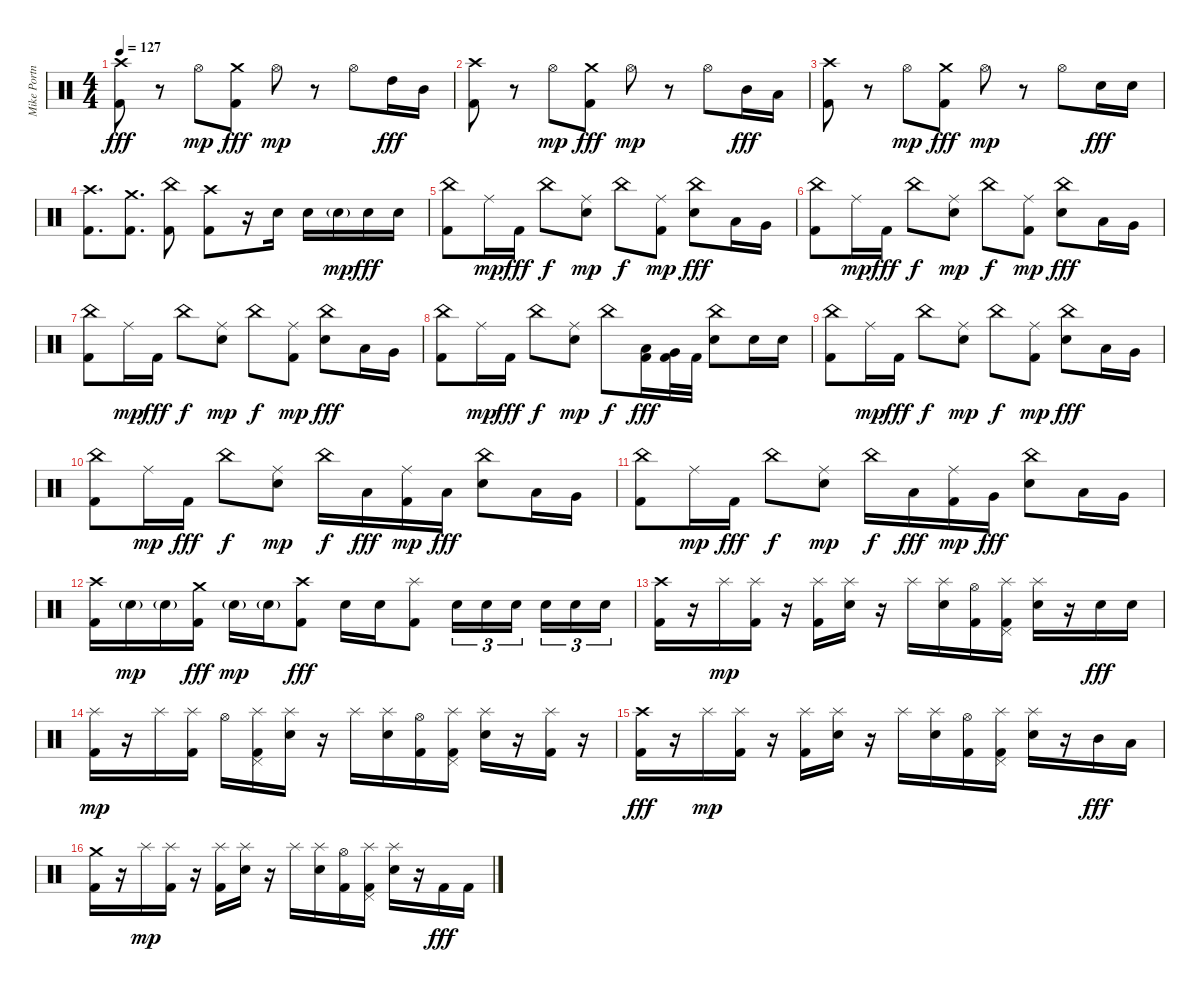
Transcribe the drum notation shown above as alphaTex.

\track ("Mike Portnoy" "Mike Portn") {instrument percussion}
\staff {score}
\articulation defaults
\ts (4 4)
\tempo 127
\clef neutral
\ks c
("Kick (hit) 2" "Crash high (hit)").8{dy fff} r.8 "Hi-Hat (open)".8{dy mp} ("Kick (hit) 2" "Crash medium (hit)").8{dy fff} "Hi-Hat (open)".8{dy mp} r.8 "Hi-Hat (open)".8 "High Tom (hit)".16{dy fff} "Mid Tom (hit)".16 |
("Kick (hit) 2" "Crash high (hit)").8 r.8 "Hi-Hat (open)".8{dy mp} ("Kick (hit) 2" "Crash medium (hit)").8{dy fff} "Hi-Hat (open)".8{dy mp} r.8 "Hi-Hat (open)".8 "Mid Tom (hit)".16{dy fff} "Low Tom (hit)".16 |
("Kick (hit) 2" "Crash high (hit)").8 r.8 "Hi-Hat (open)".8{dy mp} ("Kick (hit) 2" "Crash medium (hit)").8{dy fff} "Hi-Hat (open)".8{dy mp} r.8 "Hi-Hat (open)".8 "Electric Snare (hit)".16{dy fff} "Electric Snare (hit)".16 |
("Kick (hit) 2" "Crash high (hit)").8{d} ("Kick (hit) 2" "Crash medium (hit)").8{d} ("Kick (hit) 2" "China (hit)").8 ("Kick (hit) 2" "Crash high (hit)").8 r.16 "Electric Snare (hit)".16 "Electric Snare (hit)".16 "Electric Snare (hit)"{g}.16{dy mp} "Electric Snare (hit)".16{dy fff} "Electric Snare (hit)".16 |
("Kick (hit) 2" "China (hit)").8 "Ride (middle)".16{dy mp} "Kick (hit) 2".16{dy fff} "China (hit)".8{dy f} ("Electric Snare (hit)" "Ride (middle)").8{dy mp} "China (hit)".8{dy f} ("Kick (hit) 2" "Ride (middle)").8{dy mp} ("Electric Snare (hit)" "China (hit)").8{dy fff} "Low Tom (hit)".16 "Very Low Tom (hit)".16 |
("Kick (hit) 2" "China (hit)").8 "Ride (middle)".16{dy mp} "Kick (hit) 2".16{dy fff} "China (hit)".8{dy f} ("Electric Snare (hit)" "Ride (middle)").8{dy mp} "China (hit)".8{dy f} ("Kick (hit) 2" "Ride (middle)").8{dy mp} ("Electric Snare (hit)" "China (hit)").8{dy fff} "Low Tom (hit)".16 "Very Low Tom (hit)".16 |
("Kick (hit) 2" "China (hit)").8 "Ride (middle)".16{dy mp} "Kick (hit) 2".16{dy fff} "China (hit)".8{dy f} ("Electric Snare (hit)" "Ride (middle)").8{dy mp} "China (hit)".8{dy f} ("Kick (hit) 2" "Ride (middle)").8{dy mp} ("Electric Snare (hit)" "China (hit)").8{dy fff} "Low Tom (hit)".16 "Very Low Tom (hit)".16 |
("Kick (hit) 2" "China (hit)").8 "Ride (middle)".16{dy mp} "Kick (hit) 2".16{dy fff} "China (hit)".8{dy f} ("Electric Snare (hit)" "Ride (middle)").8{dy mp} "China (hit)".8{dy f} ("Kick (hit) 2" "Low Tom (hit)").16{dy fff} ("Kick (hit) 2" "Very Low Tom (hit)").32 "Kick (hit) 2".32 ("Electric Snare (hit)" "China (hit)").8 "Electric Snare (hit)".16 "Electric Snare (hit)".16 |
("Kick (hit) 2" "China (hit)").8 "Ride (middle)".16{dy mp} "Kick (hit) 2".16{dy fff} "China (hit)".8{dy f} ("Electric Snare (hit)" "Ride (middle)").8{dy mp} "China (hit)".8{dy f} ("Kick (hit) 2" "Ride (middle)").8{dy mp} ("Electric Snare (hit)" "China (hit)").8{dy fff} "Low Tom (hit)".16 "Very Low Tom (hit)".16 |
("Kick (hit) 2" "China (hit)").8 "Ride (middle)".16{dy mp} "Kick (hit) 2".16{dy fff} "China (hit)".8{dy f} ("Electric Snare (hit)" "Ride (middle)").8{dy mp} "China (hit)".16{dy f} "Low Tom (hit)".16{dy fff} ("Kick (hit) 2" "Ride (middle)").16{dy mp} "Low Tom (hit)".16{dy fff} ("Electric Snare (hit)" "China (hit)").8 "Low Tom (hit)".16 "Very Low Tom (hit)".16 |
("Kick (hit) 2" "China (hit)").8 "Ride (middle)".16{dy mp} "Kick (hit) 2".16{dy fff} "China (hit)".8{dy f} ("Electric Snare (hit)" "Ride (middle)").8{dy mp} "China (hit)".16{dy f} "Low Tom (hit)".16{dy fff} ("Kick (hit) 2" "Ride (middle)").16{dy mp} "Very Low Tom (hit)".16{dy fff} ("Electric Snare (hit)" "China (hit)").8 "Low Tom (hit)".16 "Very Low Tom (hit)".16 |
("Kick (hit) 2" "Crash high (hit)").16 "Electric Snare (hit)"{g}.16{dy mp} "Electric Snare (hit)"{g}.16 ("Kick (hit) 2" "Crash medium (hit)").16{dy fff} "Electric Snare (hit)"{g}.16{dy mp} "Electric Snare (hit)"{g}.16 ("Kick (hit) 2" "Crash high (hit)").8{dy fff} "Electric Snare (hit)".16 "Electric Snare (hit)".16 ("Kick (hit) 2" "Splash (hit)").8 "Electric Snare (hit)".16{tu (3 2)} "Electric Snare (hit)".16{tu (3 2)} "Electric Snare (hit)".16{tu (3 2) beam splitsecondary} "Electric Snare (hit)".16{tu (3 2)} "Electric Snare (hit)".16{tu (3 2)} "Electric Snare (hit)".16{tu (3 2)} |
("Kick (hit) 2" "Crash high (hit)").16 r.16 "Splash (hit)".16{dy mp} ("Kick (hit) 2" "Splash (hit)").16 r.16 ("Kick (hit) 2" "Splash (hit)").16 ("Electric Snare (hit)" "Splash (hit)").16 r.16 "Splash (hit)".16 ("Electric Snare (hit)" "Splash (hit)").16 ("Kick (hit) 2" "Hi-Hat (open)").16 ("Kick (hit) 2" "Splash (hit)" "Pedal Hi-Hat (hit)").16 ("Electric Snare (hit)" "Splash (hit)").16 r.16 "Electric Snare (hit)".16{dy fff} "Electric Snare (hit)".16 |
("Kick (hit) 2" "Splash (hit)").16{dy mp} r.16 "Splash (hit)".16 ("Kick (hit) 2" "Splash (hit)").16 "Hi-Hat (open)".16 ("Kick (hit) 2" "Splash (hit)" "Pedal Hi-Hat (hit)").16 ("Electric Snare (hit)" "Splash (hit)").16 r.16 "Splash (hit)".16 ("Electric Snare (hit)" "Splash (hit)").16 ("Kick (hit) 2" "Hi-Hat (open)").16 ("Kick (hit) 2" "Splash (hit)" "Pedal Hi-Hat (hit)").16 ("Electric Snare (hit)" "Splash (hit)").16 r.16 ("Kick (hit) 2" "Splash (hit)").16 r.16 |
("Kick (hit) 2" "Crash high (hit)").16{dy fff} r.16 "Splash (hit)".16{dy mp} ("Kick (hit) 2" "Splash (hit)").16 r.16 ("Kick (hit) 2" "Splash (hit)").16 ("Electric Snare (hit)" "Splash (hit)").16 r.16 "Splash (hit)".16 ("Electric Snare (hit)" "Splash (hit)").16 ("Kick (hit) 2" "Hi-Hat (open)").16 ("Kick (hit) 2" "Splash (hit)" "Pedal Hi-Hat (hit)").16 ("Electric Snare (hit)" "Splash (hit)").16 r.16 "Mid Tom (hit)".16{dy fff} "Low Tom (hit)".16 |
("Kick (hit) 2" "Crash medium (hit)").16 r.16 "Splash (hit)".16{dy mp} ("Kick (hit) 2" "Splash (hit)").16 r.16 ("Kick (hit) 2" "Splash (hit)").16 ("Electric Snare (hit)" "Splash (hit)").16 r.16 "Splash (hit)".16 ("Electric Snare (hit)" "Splash (hit)").16 ("Kick (hit) 2" "Hi-Hat (open)").16 ("Kick (hit) 2" "Splash (hit)" "Pedal Hi-Hat (hit)").16 ("Electric Snare (hit)" "Splash (hit)").16 r.16 "Kick (hit) 2".16{dy fff} "Kick (hit) 2".16
